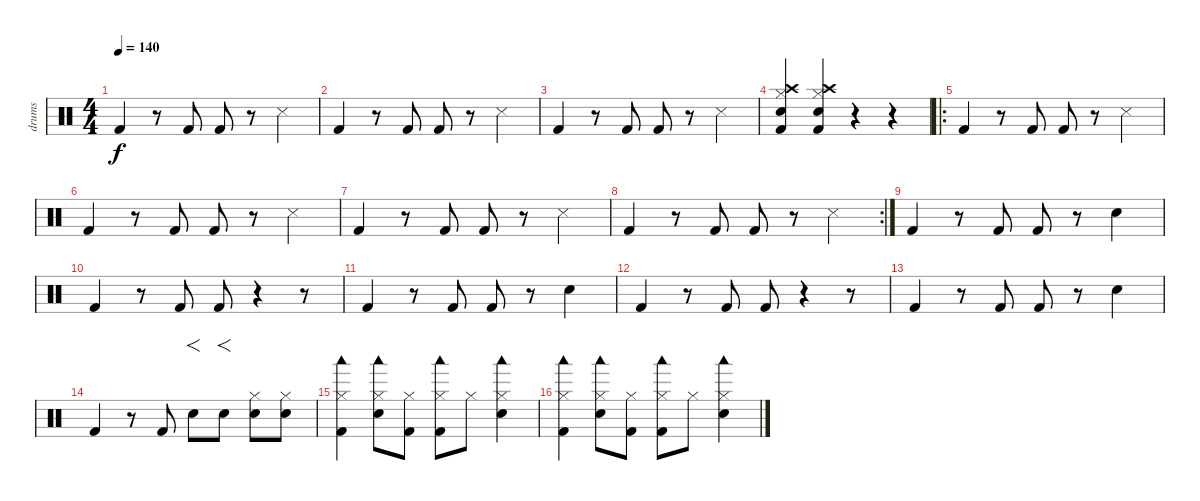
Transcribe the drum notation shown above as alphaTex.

\track ("drums" "drums") {instrument percussion}
\staff {score}
\articulation defaults
\ts (4 4)
\tempo 140
\clef neutral
\ks c "Kick (hit) 2".4{dy f}
r.8 "Kick (hit) 2".8 "Kick (hit) 2".8 r.8 "Snare (side stick) 3".4 |
"Kick (hit) 2".4 r.8 "Kick (hit) 2".8 "Kick (hit) 2".8 r.8 "Snare (side stick) 3".4 |
"Kick (hit) 2".4 r.8 "Kick (hit) 2".8 "Kick (hit) 2".8 r.8 "Snare (side stick) 3".4 |
("Crash high (hit)" "Hi-Hat (closed)" "Snare (hit) 2" "Kick (hit) 2").4 ("Crash high (hit)" "Hi-Hat (closed)" "Snare (hit) 2" "Kick (hit) 2").4 r.4 r.4 |
\ro "Kick (hit) 2".4
r.8 "Kick (hit) 2".8 "Kick (hit) 2".8 r.8 "Snare (side stick) 3".4 |
"Kick (hit) 2".4 r.8 "Kick (hit) 2".8 "Kick (hit) 2".8 r.8 "Snare (side stick) 3".4 |
"Kick (hit) 2".4 r.8 "Kick (hit) 2".8 "Kick (hit) 2".8 r.8 "Snare (side stick) 3".4 |
\rc 2 "Kick (hit) 2".4
r.8 "Kick (hit) 2".8 "Kick (hit) 2".8 r.8 "Snare (side stick) 3".4 |
"Kick (hit) 2".4 r.8 "Kick (hit) 2".8 "Kick (hit) 2".8 r.8 "Snare (hit) 2".4 |
"Kick (hit) 2".4 r.8 "Kick (hit) 2".8 "Kick (hit) 2".8 r.4 r.8 |
"Kick (hit) 2".4 r.8 "Kick (hit) 2".8 "Kick (hit) 2".8 r.8 "Snare (hit) 2".4 |
"Kick (hit) 2".4 r.8 "Kick (hit) 2".8 "Kick (hit) 2".8 r.4 r.8 |
"Kick (hit) 2".4 r.8 "Kick (hit) 2".8 "Kick (hit) 2".8 r.8 "Snare (hit) 2".4 |
"Kick (hit) 2".4 r.8 "Kick (hit) 2".8 "Snare (hit) 2".8{f} "Snare (hit) 2".8{f} ("Hi-Hat (closed)" "Snare (hit) 2").8 ("Hi-Hat (closed)" "Snare (hit) 2").8 |
("Woodblock low (hit)" "Hi-Hat (closed)" "Kick (hit) 2").4 ("Woodblock low (hit)" "Hi-Hat (closed)" "Snare (hit) 2").8 ("Hi-Hat (closed)" "Kick (hit) 2").8 ("Woodblock low (hit)" "Hi-Hat (closed)" "Kick (hit) 2").8 "Hi-Hat (closed)".8 ("Woodblock low (hit)" "Hi-Hat (closed)" "Snare (hit) 2").4 |
("Woodblock low (hit)" "Hi-Hat (closed)" "Kick (hit) 2").4 ("Woodblock low (hit)" "Hi-Hat (closed)" "Snare (hit) 2").8 ("Hi-Hat (closed)" "Kick (hit) 2").8 ("Woodblock low (hit)" "Hi-Hat (closed)" "Kick (hit) 2").8 "Hi-Hat (closed)".8 ("Woodblock low (hit)" "Hi-Hat (closed)" "Snare (hit) 2").4
